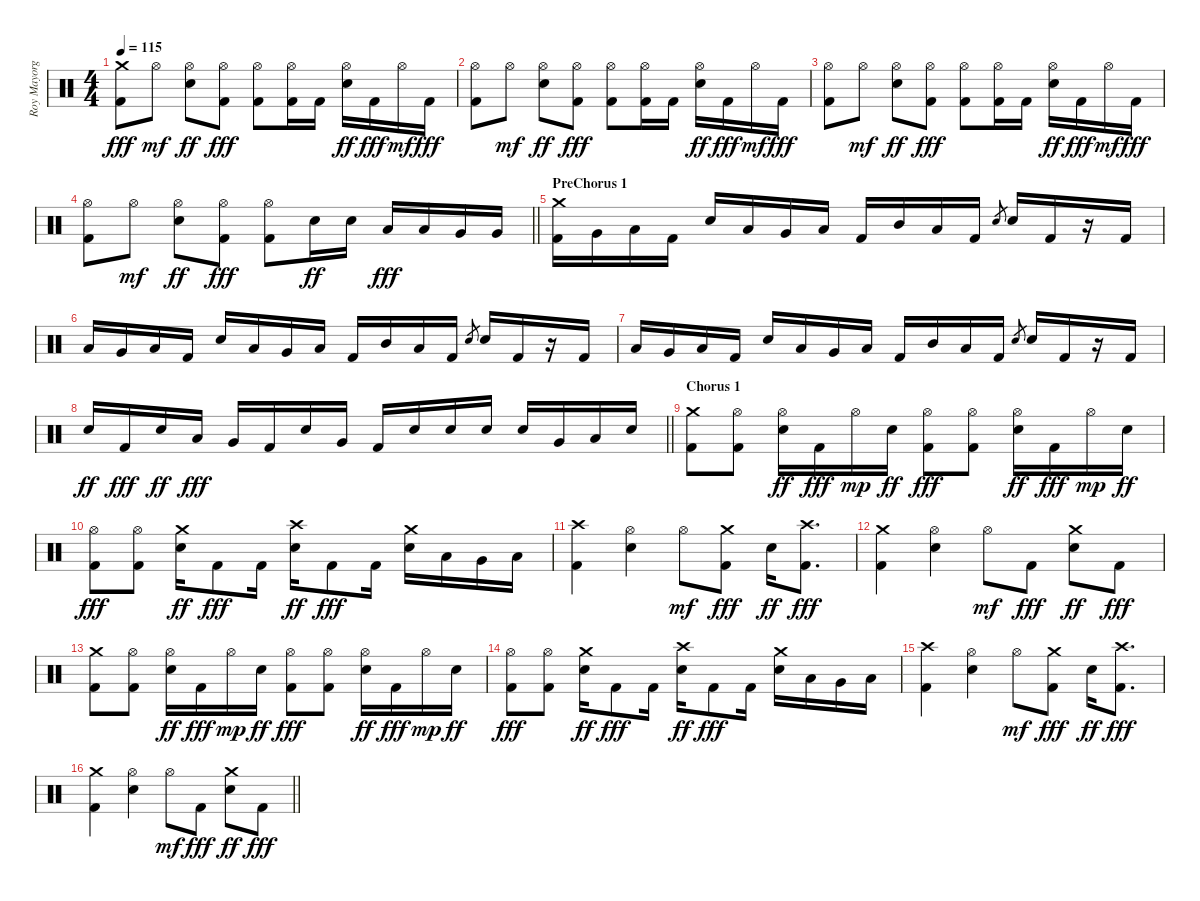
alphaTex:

\track ("Roy Mayorga" "Roy Mayorg") {instrument percussion}
\staff {score}
\articulation defaults
\ts (4 4)
\tempo 115
\clef neutral
\ks c
("Crash medium (hit)" "Kick (hit) 2").8{dy fff} "Hi-Hat (open)".8{dy mf} ("Hi-Hat (open)" "Electric Snare (hit)").8{dy ff} ("Hi-Hat (open)" "Kick (hit) 2").8{dy fff} ("Hi-Hat (open)" "Kick (hit) 2").8 ("Hi-Hat (open)" "Kick (hit) 2").16 "Kick (hit) 2".16 ("Hi-Hat (open)" "Electric Snare (hit)").16{dy ff} "Kick (hit) 2".16{dy fff} "Hi-Hat (open)".16{dy mf} "Kick (hit) 2".16{dy fff} |
("Hi-Hat (open)" "Kick (hit) 2").8 "Hi-Hat (open)".8{dy mf} ("Hi-Hat (open)" "Electric Snare (hit)").8{dy ff} ("Hi-Hat (open)" "Kick (hit) 2").8{dy fff} ("Hi-Hat (open)" "Kick (hit) 2").8 ("Hi-Hat (open)" "Kick (hit) 2").16 "Kick (hit) 2".16 ("Hi-Hat (open)" "Electric Snare (hit)").16{dy ff} "Kick (hit) 2".16{dy fff} "Hi-Hat (open)".16{dy mf} "Kick (hit) 2".16{dy fff} |
("Hi-Hat (open)" "Kick (hit) 2").8 "Hi-Hat (open)".8{dy mf} ("Hi-Hat (open)" "Electric Snare (hit)").8{dy ff} ("Hi-Hat (open)" "Kick (hit) 2").8{dy fff} ("Hi-Hat (open)" "Kick (hit) 2").8 ("Hi-Hat (open)" "Kick (hit) 2").16 "Kick (hit) 2".16 ("Hi-Hat (open)" "Electric Snare (hit)").16{dy ff} "Kick (hit) 2".16{dy fff} "Hi-Hat (open)".16{dy mf} "Kick (hit) 2".16{dy fff} |
\barLineRight lightlight
("Hi-Hat (open)" "Kick (hit) 2").8 "Hi-Hat (open)".8{dy mf} ("Hi-Hat (open)" "Electric Snare (hit)").8{dy ff} ("Hi-Hat (open)" "Kick (hit) 2").8{dy fff} ("Hi-Hat (open)" "Kick (hit) 2").8 "Electric Snare (hit)".16{dy ff} "Electric Snare (hit)".16 "Low Tom (hit)".16{dy fff} "Low Tom (hit)".16 "Very Low Tom (hit)".16 "Very Low Tom (hit)".16 |
\section ("" "PreChorus 1")
("Crash medium (hit)" "Kick (hit) 2").16 "Very Low Tom (hit)".16 "Low Floor Tom (hit)".16 "Kick (hit) 2".16 "Electric Snare (hit)".16 "Low Tom (hit)".16 "Very Low Tom (hit)".16 "Low Floor Tom (hit)".16 "Kick (hit) 2".16 "Mid Tom (hit)".16 "Low Tom (hit)".16 "Kick (hit) 2".16 "Electric Snare (hit)".8{gr} "Electric Snare (hit)".16 "Kick (hit) 2".16 r.16 "Kick (hit) 2".16 |
"Low Tom (hit)".16 "Very Low Tom (hit)".16 "Low Floor Tom (hit)".16 "Kick (hit) 2".16 "Electric Snare (hit)".16 "Low Tom (hit)".16 "Very Low Tom (hit)".16 "Low Floor Tom (hit)".16 "Kick (hit) 2".16 "Mid Tom (hit)".16 "Low Tom (hit)".16 "Kick (hit) 2".16 "Electric Snare (hit)".8{gr} "Electric Snare (hit)".16 "Kick (hit) 2".16 r.16 "Kick (hit) 2".16 |
"Low Tom (hit)".16 "Very Low Tom (hit)".16 "Low Floor Tom (hit)".16 "Kick (hit) 2".16 "Electric Snare (hit)".16 "Low Tom (hit)".16 "Very Low Tom (hit)".16 "Low Floor Tom (hit)".16 "Kick (hit) 2".16 "Mid Tom (hit)".16 "Low Tom (hit)".16 "Kick (hit) 2".16 "Electric Snare (hit)".8{gr} "Electric Snare (hit)".16 "Kick (hit) 2".16 r.16 "Kick (hit) 2".16 |
\barLineRight lightlight "Electric Snare (hit)".16{dy ff} "Kick (hit) 2".16{dy fff} "Electric Snare (hit)".16{dy ff} "Low Tom (hit)".16{dy fff} "Very Low Tom (hit)".16 "Kick (hit) 2".16 "Electric Snare (hit)".16 "Very Low Tom (hit)".16 "Kick (hit) 2".16 "Electric Snare (hit)".16 "Electric Snare (hit)".16 "Electric Snare (hit)".16 "Electric Snare (hit)".16 "Very Low Tom (hit)".16 "Low Floor Tom (hit)".16 "Electric Snare (hit)".16
|
\section ("" "Chorus 1")
("Crash medium (hit)" "Kick (hit) 2").8 ("Hi-Hat (open)" "Kick (hit) 2").8 ("Hi-Hat (open)" "Electric Snare (hit)").16{dy ff} "Kick (hit) 2".16{dy fff} "Hi-Hat (open)".16{dy mp} "Electric Snare (hit)".16{dy ff} ("Hi-Hat (open)" "Kick (hit) 2").8{dy fff} ("Hi-Hat (open)" "Kick (hit) 2").8 ("Hi-Hat (open)" "Electric Snare (hit)").16{dy ff} "Kick (hit) 2".16{dy fff} "Hi-Hat (open)".16{dy mp} "Electric Snare (hit)".16{dy ff} |
("Hi-Hat (open)" "Kick (hit) 2").8{dy fff} ("Hi-Hat (open)" "Kick (hit) 2").8 ("Crash medium (hit)" "Electric Snare (hit)").16{dy ff} "Kick (hit) 2".8{dy fff} "Kick (hit) 2".16 ("Crash high (hit)" "Electric Snare (hit)").16{dy ff} "Kick (hit) 2".8{dy fff} "Kick (hit) 2".16 ("Crash medium (hit)" "Electric Snare (hit)").16 "Low Tom (hit)".16 "Very Low Tom (hit)".16 "Low Floor Tom (hit)".16 |
("Crash high (hit)" "Kick (hit) 2").4 ("Hi-Hat (open)" "Electric Snare (hit)").4 "Hi-Hat (open)".8{dy mf} ("Crash medium (hit)" "Kick (hit) 2").8{dy fff} "Electric Snare (hit)".16{dy ff} ("Crash high (hit)" "Kick (hit) 2").8{d dy fff} |
("Crash medium (hit)" "Kick (hit) 2").4 ("Hi-Hat (open)" "Electric Snare (hit)").4 "Hi-Hat (open)".8{dy mf} "Kick (hit) 2".8{dy fff} ("Crash medium (hit)" "Electric Snare (hit)").8{dy ff} "Kick (hit) 2".8{dy fff} |
("Crash medium (hit)" "Kick (hit) 2").8 ("Hi-Hat (open)" "Kick (hit) 2").8 ("Hi-Hat (open)" "Electric Snare (hit)").16{dy ff} "Kick (hit) 2".16{dy fff} "Hi-Hat (open)".16{dy mp} "Electric Snare (hit)".16{dy ff} ("Hi-Hat (open)" "Kick (hit) 2").8{dy fff} ("Hi-Hat (open)" "Kick (hit) 2").8 ("Hi-Hat (open)" "Electric Snare (hit)").16{dy ff} "Kick (hit) 2".16{dy fff} "Hi-Hat (open)".16{dy mp} "Electric Snare (hit)".16{dy ff} |
("Hi-Hat (open)" "Kick (hit) 2").8{dy fff} ("Hi-Hat (open)" "Kick (hit) 2").8 ("Crash medium (hit)" "Electric Snare (hit)").16{dy ff} "Kick (hit) 2".8{dy fff} "Kick (hit) 2".16 ("Crash high (hit)" "Electric Snare (hit)").16{dy ff} "Kick (hit) 2".8{dy fff} "Kick (hit) 2".16 ("Crash medium (hit)" "Electric Snare (hit)").16 "Low Tom (hit)".16 "Very Low Tom (hit)".16 "Low Floor Tom (hit)".16 |
("Crash high (hit)" "Kick (hit) 2").4 ("Hi-Hat (open)" "Electric Snare (hit)").4 "Hi-Hat (open)".8{dy mf} ("Crash medium (hit)" "Kick (hit) 2").8{dy fff} "Electric Snare (hit)".16{dy ff} ("Crash high (hit)" "Kick (hit) 2").8{d dy fff} |
\barLineRight lightlight
("Crash medium (hit)" "Kick (hit) 2").4 ("Hi-Hat (open)" "Electric Snare (hit)").4 "Hi-Hat (open)".8{dy mf} "Kick (hit) 2".8{dy fff} ("Crash medium (hit)" "Electric Snare (hit)").8{dy ff} "Kick (hit) 2".8{dy fff}
